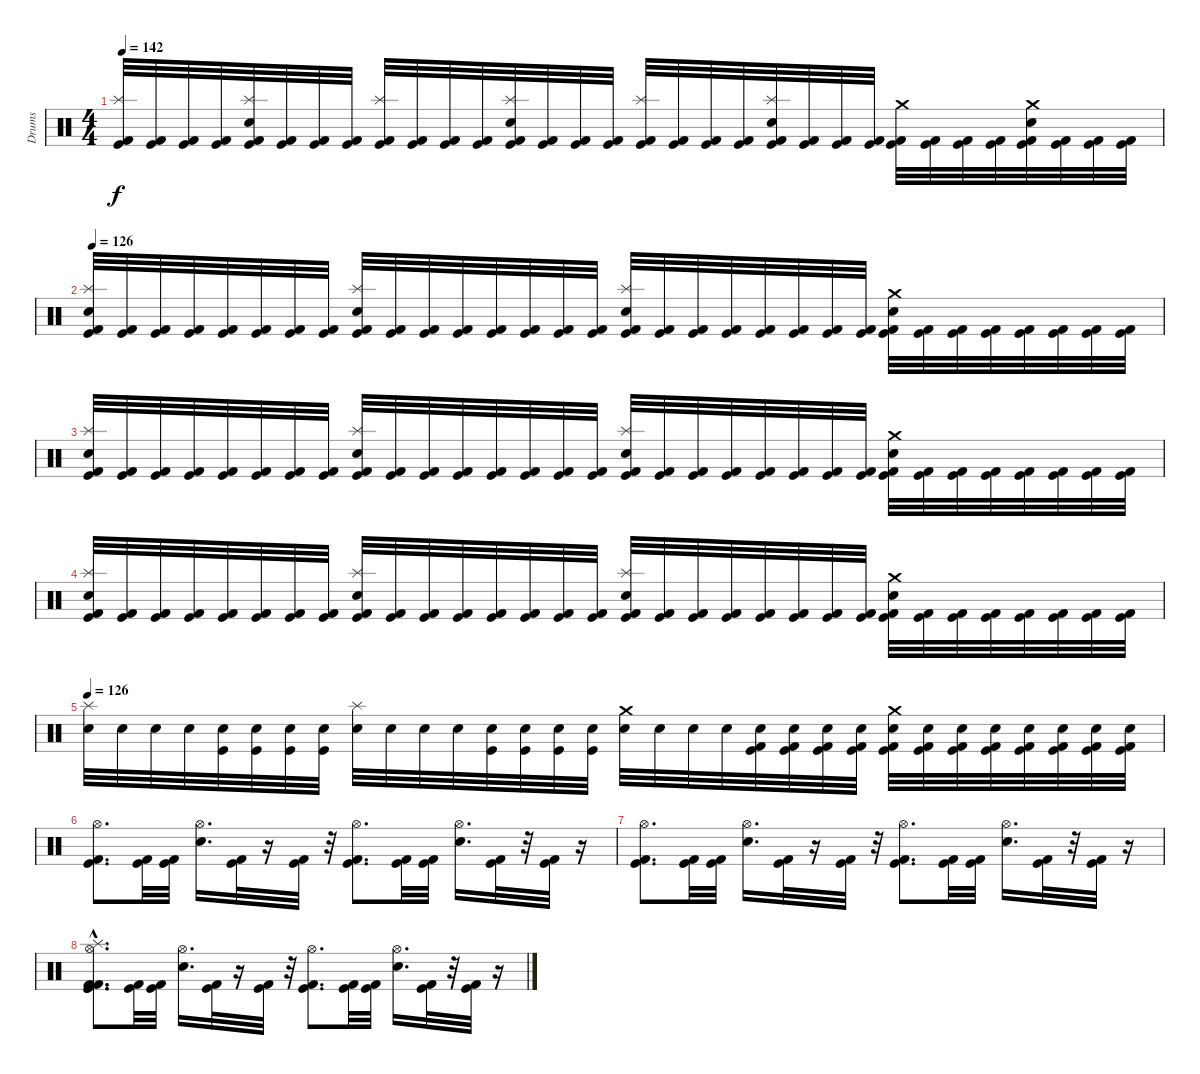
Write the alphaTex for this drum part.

\track ("Drums" "Drums") {instrument percussion}
\staff {score}
\articulation defaults
\ts (4 4)
\tempo 142
\clef neutral
\ks c
("Kick (hit)" "Splash (hit)" "Kick (hit) 2").32{dy f} ("Kick (hit)" "Kick (hit) 2").32 ("Kick (hit)" "Kick (hit) 2").32 ("Kick (hit)" "Kick (hit) 2").32 ("Electric Snare (hit)" "Kick (hit)" "Splash (hit)" "Kick (hit) 2").32 ("Kick (hit)" "Kick (hit) 2").32 ("Kick (hit)" "Kick (hit) 2").32 ("Kick (hit)" "Kick (hit) 2").32 ("Kick (hit)" "Splash (hit)" "Kick (hit) 2").32 ("Kick (hit)" "Kick (hit) 2").32 ("Kick (hit)" "Kick (hit) 2").32 ("Kick (hit)" "Kick (hit) 2").32 ("Electric Snare (hit)" "Kick (hit)" "Splash (hit)" "Kick (hit) 2").32 ("Kick (hit)" "Kick (hit) 2").32 ("Kick (hit)" "Kick (hit) 2").32 ("Kick (hit)" "Kick (hit) 2").32 ("Kick (hit)" "Splash (hit)" "Kick (hit) 2").32 ("Kick (hit)" "Kick (hit) 2").32 ("Kick (hit)" "Kick (hit) 2").32 ("Kick (hit)" "Kick (hit) 2").32 ("Electric Snare (hit)" "Kick (hit)" "Splash (hit)" "Kick (hit) 2").32 ("Kick (hit)" "Kick (hit) 2").32 ("Kick (hit)" "Kick (hit) 2").32 ("Kick (hit)" "Kick (hit) 2").32 ("Kick (hit)" "Crash medium (hit)" "Kick (hit) 2").32 ("Kick (hit)" "Kick (hit) 2").32 ("Kick (hit)" "Kick (hit) 2").32 ("Kick (hit)" "Kick (hit) 2").32 ("Electric Snare (hit)" "Kick (hit)" "Crash medium (hit)" "Kick (hit) 2").32 ("Kick (hit)" "Kick (hit) 2").32 ("Kick (hit)" "Kick (hit) 2").32 ("Kick (hit)" "Kick (hit) 2").32 |
\tempo 126
("Electric Snare (hit)" "Kick (hit)" "Splash (hit)" "Kick (hit) 2").32 ("Kick (hit)" "Kick (hit) 2").32 ("Kick (hit)" "Kick (hit) 2").32 ("Kick (hit)" "Kick (hit) 2").32 ("Kick (hit)" "Kick (hit) 2").32 ("Kick (hit)" "Kick (hit) 2").32 ("Kick (hit)" "Kick (hit) 2").32 ("Kick (hit)" "Kick (hit) 2").32 ("Electric Snare (hit)" "Kick (hit)" "Splash (hit)" "Kick (hit) 2").32 ("Kick (hit)" "Kick (hit) 2").32 ("Kick (hit)" "Kick (hit) 2").32 ("Kick (hit)" "Kick (hit) 2").32 ("Kick (hit)" "Kick (hit) 2").32 ("Kick (hit)" "Kick (hit) 2").32 ("Kick (hit)" "Kick (hit) 2").32 ("Kick (hit)" "Kick (hit) 2").32 ("Electric Snare (hit)" "Kick (hit)" "Splash (hit)" "Kick (hit) 2").32 ("Kick (hit)" "Kick (hit) 2").32 ("Kick (hit)" "Kick (hit) 2").32 ("Kick (hit)" "Kick (hit) 2").32 ("Kick (hit)" "Kick (hit) 2").32 ("Kick (hit)" "Kick (hit) 2").32 ("Kick (hit)" "Kick (hit) 2").32 ("Kick (hit)" "Kick (hit) 2").32 ("Electric Snare (hit)" "Kick (hit)" "Crash medium (hit)" "Kick (hit) 2").32 ("Kick (hit)" "Kick (hit) 2").32 ("Kick (hit)" "Kick (hit) 2").32 ("Kick (hit)" "Kick (hit) 2").32 ("Kick (hit)" "Kick (hit) 2").32 ("Kick (hit)" "Kick (hit) 2").32 ("Kick (hit)" "Kick (hit) 2").32 ("Kick (hit)" "Kick (hit) 2").32 |
("Electric Snare (hit)" "Kick (hit)" "Splash (hit)" "Kick (hit) 2").32 ("Kick (hit)" "Kick (hit) 2").32 ("Kick (hit)" "Kick (hit) 2").32 ("Kick (hit)" "Kick (hit) 2").32 ("Kick (hit)" "Kick (hit) 2").32 ("Kick (hit)" "Kick (hit) 2").32 ("Kick (hit)" "Kick (hit) 2").32 ("Kick (hit)" "Kick (hit) 2").32 ("Electric Snare (hit)" "Kick (hit)" "Splash (hit)" "Kick (hit) 2").32 ("Kick (hit)" "Kick (hit) 2").32 ("Kick (hit)" "Kick (hit) 2").32 ("Kick (hit)" "Kick (hit) 2").32 ("Kick (hit)" "Kick (hit) 2").32 ("Kick (hit)" "Kick (hit) 2").32 ("Kick (hit)" "Kick (hit) 2").32 ("Kick (hit)" "Kick (hit) 2").32 ("Electric Snare (hit)" "Kick (hit)" "Splash (hit)" "Kick (hit) 2").32 ("Kick (hit)" "Kick (hit) 2").32 ("Kick (hit)" "Kick (hit) 2").32 ("Kick (hit)" "Kick (hit) 2").32 ("Kick (hit)" "Kick (hit) 2").32 ("Kick (hit)" "Kick (hit) 2").32 ("Kick (hit)" "Kick (hit) 2").32 ("Kick (hit)" "Kick (hit) 2").32 ("Electric Snare (hit)" "Kick (hit)" "Crash medium (hit)" "Kick (hit) 2").32 ("Kick (hit)" "Kick (hit) 2").32 ("Kick (hit)" "Kick (hit) 2").32 ("Kick (hit)" "Kick (hit) 2").32 ("Kick (hit)" "Kick (hit) 2").32 ("Kick (hit)" "Kick (hit) 2").32 ("Kick (hit)" "Kick (hit) 2").32 ("Kick (hit)" "Kick (hit) 2").32 |
("Electric Snare (hit)" "Kick (hit)" "Splash (hit)" "Kick (hit) 2").32 ("Kick (hit)" "Kick (hit) 2").32 ("Kick (hit)" "Kick (hit) 2").32 ("Kick (hit)" "Kick (hit) 2").32 ("Kick (hit)" "Kick (hit) 2").32 ("Kick (hit)" "Kick (hit) 2").32 ("Kick (hit)" "Kick (hit) 2").32 ("Kick (hit)" "Kick (hit) 2").32 ("Electric Snare (hit)" "Kick (hit)" "Splash (hit)" "Kick (hit) 2").32 ("Kick (hit)" "Kick (hit) 2").32 ("Kick (hit)" "Kick (hit) 2").32 ("Kick (hit)" "Kick (hit) 2").32 ("Kick (hit)" "Kick (hit) 2").32 ("Kick (hit)" "Kick (hit) 2").32 ("Kick (hit)" "Kick (hit) 2").32 ("Kick (hit)" "Kick (hit) 2").32 ("Electric Snare (hit)" "Kick (hit)" "Splash (hit)" "Kick (hit) 2").32 ("Kick (hit)" "Kick (hit) 2").32 ("Kick (hit)" "Kick (hit) 2").32 ("Kick (hit)" "Kick (hit) 2").32 ("Kick (hit)" "Kick (hit) 2").32 ("Kick (hit)" "Kick (hit) 2").32 ("Kick (hit)" "Kick (hit) 2").32 ("Kick (hit)" "Kick (hit) 2").32 ("Electric Snare (hit)" "Kick (hit)" "Crash medium (hit)" "Kick (hit) 2").32 ("Kick (hit)" "Kick (hit) 2").32 ("Kick (hit)" "Kick (hit) 2").32 ("Kick (hit)" "Kick (hit) 2").32 ("Kick (hit)" "Kick (hit) 2").32 ("Kick (hit)" "Kick (hit) 2").32 ("Kick (hit)" "Kick (hit) 2").32 ("Kick (hit)" "Kick (hit) 2").32 |
\tempo 126
("Electric Snare (hit)" "Splash (hit)").32 "Electric Snare (hit)".32 "Electric Snare (hit)".32 "Electric Snare (hit)".32 ("Kick (hit)" "Electric Snare (hit)").32 ("Kick (hit)" "Electric Snare (hit)").32 ("Kick (hit)" "Electric Snare (hit)").32 ("Kick (hit)" "Electric Snare (hit)").32 ("Splash (hit)" "Electric Snare (hit)").32 "Electric Snare (hit)".32 "Electric Snare (hit)".32 "Electric Snare (hit)".32 ("Kick (hit)" "Electric Snare (hit)").32 ("Kick (hit)" "Electric Snare (hit)").32 ("Kick (hit)" "Electric Snare (hit)").32 ("Kick (hit)" "Electric Snare (hit)").32 ("Crash medium (hit)" "Electric Snare (hit)").32 "Electric Snare (hit)".32 "Electric Snare (hit)".32 "Electric Snare (hit)".32 ("Kick (hit) 2" "Kick (hit)" "Electric Snare (hit)").32 ("Kick (hit) 2" "Kick (hit)" "Electric Snare (hit)").32 ("Kick (hit) 2" "Kick (hit)" "Electric Snare (hit)").32 ("Kick (hit) 2" "Kick (hit)" "Electric Snare (hit)").32 ("Kick (hit) 2" "Kick (hit)" "Electric Snare (hit)" "Crash medium (hit)").32 ("Kick (hit) 2" "Kick (hit)" "Electric Snare (hit)").32 ("Kick (hit) 2" "Kick (hit)" "Electric Snare (hit)").32 ("Kick (hit) 2" "Kick (hit)" "Electric Snare (hit)").32 ("Kick (hit) 2" "Kick (hit)" "Electric Snare (hit)").32 ("Kick (hit) 2" "Kick (hit)" "Electric Snare (hit)").32 ("Kick (hit) 2" "Kick (hit)" "Electric Snare (hit)").32 ("Kick (hit) 2" "Kick (hit)" "Electric Snare (hit)").32 |
("Kick (hit)" "Kick (hit) 2" "Hi-Hat (open)").8{d} ("Kick (hit)" "Kick (hit) 2").32 ("Kick (hit)" "Kick (hit) 2").32 ("Snare (hit) 2" "Hi-Hat (open)").16{d} ("Kick (hit)" "Kick (hit) 2").32 r.16 ("Kick (hit)" "Kick (hit) 2").32 r.32 ("Kick (hit)" "Kick (hit) 2" "Hi-Hat (open)").8{d} ("Kick (hit)" "Kick (hit) 2").32 ("Kick (hit)" "Kick (hit) 2").32 ("Electric Snare (hit)" "Hi-Hat (open)").16{d} ("Kick (hit)" "Kick (hit) 2").32 r.32 ("Kick (hit)" "Kick (hit) 2").32 r.16 |
("Kick (hit)" "Kick (hit) 2" "Hi-Hat (open)").8{d} ("Kick (hit)" "Kick (hit) 2").32 ("Kick (hit)" "Kick (hit) 2").32 ("Snare (hit) 2" "Hi-Hat (open)").16{d} ("Kick (hit)" "Kick (hit) 2").32 r.16 ("Kick (hit)" "Kick (hit) 2").32 r.32 ("Kick (hit)" "Kick (hit) 2" "Hi-Hat (open)").8{d} ("Kick (hit)" "Kick (hit) 2").32 ("Kick (hit)" "Kick (hit) 2").32 ("Electric Snare (hit)" "Hi-Hat (open)").16{d} ("Kick (hit)" "Kick (hit) 2").32 r.32 ("Kick (hit)" "Kick (hit) 2").32 r.16 |
("Kick (hit)"{hac} "Splash (hit)" "Kick (hit) 2"{hac} "Kick (hit)" "Kick (hit) 2" "Hi-Hat (open)").8{d} ("Kick (hit)" "Kick (hit) 2").32 ("Kick (hit)" "Kick (hit) 2").32 ("Snare (hit) 2" "Hi-Hat (open)").16{d} ("Kick (hit)" "Kick (hit) 2").32 r.16 ("Kick (hit)" "Kick (hit) 2").32 r.32 ("Kick (hit)" "Kick (hit) 2" "Hi-Hat (open)").8{d} ("Kick (hit)" "Kick (hit) 2").32 ("Kick (hit)" "Kick (hit) 2").32 ("Electric Snare (hit)" "Hi-Hat (open)").16{d} ("Kick (hit)" "Kick (hit) 2").32 r.32 ("Kick (hit)" "Kick (hit) 2").32 r.16
